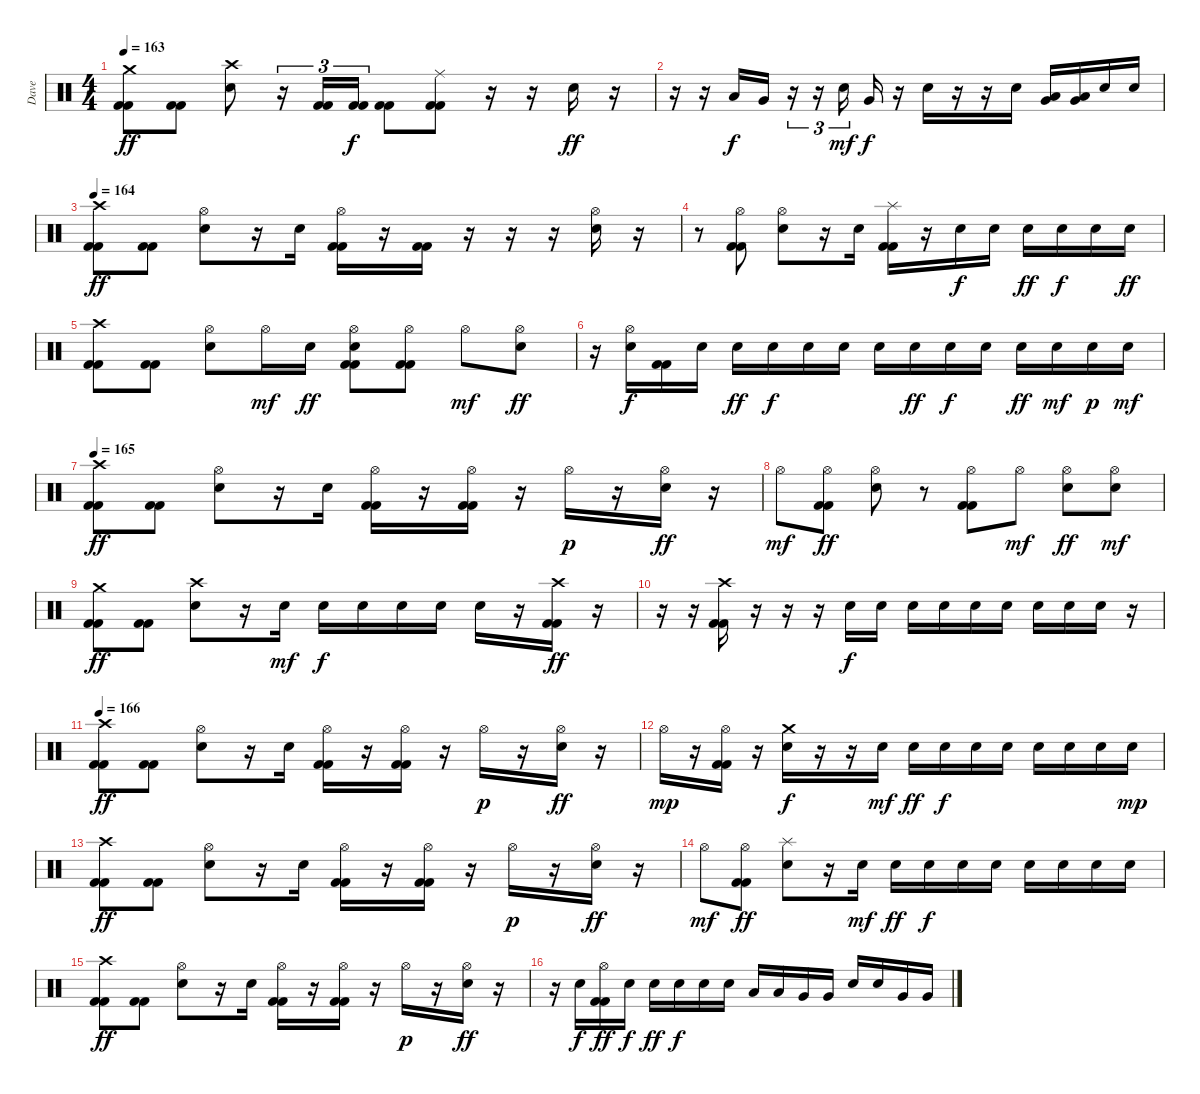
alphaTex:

\track ("Dave" "Dave") {instrument percussion}
\staff {score}
\articulation defaults
\ts (4 4)
\tempo 163
\clef neutral
\ks c
("Crash medium (hit)" "Kick (hit) 2" "Kick (hit) 2").8{dy ff} ("Kick (hit) 2" "Kick (hit) 2").8 ("Crash high (hit)" "Electric Snare (hit)").8 r.16{tu (3 2)} ("Kick (hit) 2" "Kick (hit) 2").16{tu (3 2)} ("Kick (hit) 2" "Kick (hit) 2").16{tu (3 2) dy f} ("Kick (hit) 2" "Kick (hit) 2").8 ("Ride (middle)" "Kick (hit) 2" "Kick (hit) 2").8 r.16 r.16 "Electric Snare (hit)".16{dy ff} r.16 |
r.16 r.16 "Low Tom (hit)".16{dy f} "Very Low Tom (hit)".16 r.16{tu (3 2)} r.16{tu (3 2)} "Electric Snare (hit)".16{tu (3 2) dy mf} "Very Low Tom (hit)".16{dy f} r.16 "Electric Snare (hit)".16 r.16 r.16 "Electric Snare (hit)".16 ("Low Tom (hit)" "Very Low Tom (hit)").16 ("Low Tom (hit)" "Very Low Tom (hit)").16 "Electric Snare (hit)".16 "Electric Snare (hit)".16 |
\tempo 164
("Crash high (hit)" "Kick (hit) 2" "Kick (hit) 2").8{dy ff} ("Kick (hit) 2" "Kick (hit) 2").8 ("Hi-Hat (open)" "Electric Snare (hit)").8 r.16 "Electric Snare (hit)".16 ("Hi-Hat (open)" "Kick (hit) 2" "Kick (hit) 2").16 r.16 ("Kick (hit) 2" "Kick (hit) 2").16 r.16 r.16 r.16 ("Hi-Hat (open)" "Electric Snare (hit)").16 r.16 |
r.8 ("Hi-Hat (open)" "Kick (hit) 2" "Kick (hit) 2").8 ("Hi-Hat (open)" "Electric Snare (hit)").8 r.16 "Electric Snare (hit)".16 ("Splash (hit)" "Kick (hit) 2" "Kick (hit) 2").16 r.16 "Electric Snare (hit)".16{dy f} "Electric Snare (hit)".16 "Electric Snare (hit)".16{dy ff} "Electric Snare (hit)".16{dy f} "Electric Snare (hit)".16 "Electric Snare (hit)".16{dy ff} |
("Crash high (hit)" "Kick (hit) 2" "Kick (hit) 2").8 ("Kick (hit) 2" "Kick (hit) 2").8 ("Hi-Hat (open)" "Electric Snare (hit)").8 "Hi-Hat (open)".16{dy mf} "Electric Snare (hit)".16{dy ff} ("Hi-Hat (open)" "Electric Snare (hit)" "Kick (hit) 2" "Kick (hit) 2").8 ("Hi-Hat (open)" "Kick (hit) 2" "Kick (hit) 2").8 "Hi-Hat (open)".8{dy mf} ("Hi-Hat (open)" "Electric Snare (hit)").8{dy ff} |
r.16 ("Hi-Hat (open)" "Electric Snare (hit)").16{dy f} ("Kick (hit) 2" "Kick (hit) 2").16 "Electric Snare (hit)".16 "Electric Snare (hit)".16{dy ff} "Electric Snare (hit)".16{dy f} "Electric Snare (hit)".16 "Electric Snare (hit)".16 "Electric Snare (hit)".16 "Electric Snare (hit)".16{dy ff} "Electric Snare (hit)".16{dy f} "Electric Snare (hit)".16 "Electric Snare (hit)".16{dy ff} "Electric Snare (hit)".16{dy mf} "Electric Snare (hit)".16{dy p} "Electric Snare (hit)".16{dy mf} |
\tempo 165
("Crash high (hit)" "Kick (hit) 2" "Kick (hit) 2").8{dy ff} ("Kick (hit) 2" "Kick (hit) 2").8 ("Hi-Hat (open)" "Electric Snare (hit)").8 r.16 "Electric Snare (hit)".16 ("Hi-Hat (open)" "Kick (hit) 2" "Kick (hit) 2").16 r.16 ("Hi-Hat (open)" "Kick (hit) 2" "Kick (hit) 2").16 r.16 "Hi-Hat (open)".16{dy p} r.16 ("Hi-Hat (open)" "Electric Snare (hit)").16{dy ff} r.16 |
"Hi-Hat (open)".8{dy mf} ("Hi-Hat (open)" "Kick (hit) 2" "Kick (hit) 2").8{dy ff} ("Hi-Hat (open)" "Electric Snare (hit)").8 r.8 ("Hi-Hat (open)" "Kick (hit) 2" "Kick (hit) 2").8 "Hi-Hat (open)".8{dy mf} ("Hi-Hat (open)" "Electric Snare (hit)").8{dy ff} ("Hi-Hat (open)" "Electric Snare (hit)").8{dy mf} |
("Crash medium (hit)" "Kick (hit) 2" "Kick (hit) 2").8{dy ff} ("Kick (hit) 2" "Kick (hit) 2").8 ("Crash high (hit)" "Electric Snare (hit)").8 r.16 "Electric Snare (hit)".16{dy mf} "Electric Snare (hit)".16{dy f} "Electric Snare (hit)".16 "Electric Snare (hit)".16 "Electric Snare (hit)".16 "Electric Snare (hit)".16 r.16 ("Crash high (hit)" "Kick (hit) 2" "Kick (hit) 2").16{dy ff} r.16 |
r.16 r.16 ("Crash high (hit)" "Kick (hit) 2" "Kick (hit) 2").16 r.16 r.16 r.16 "Electric Snare (hit)".16{dy f} "Electric Snare (hit)".16 "Electric Snare (hit)".16 "Electric Snare (hit)".16 "Electric Snare (hit)".16 "Electric Snare (hit)".16 "Electric Snare (hit)".16 "Electric Snare (hit)".16 "Electric Snare (hit)".16 r.16 |
\tempo 166
("Crash high (hit)" "Kick (hit) 2" "Kick (hit) 2").8{dy ff} ("Kick (hit) 2" "Kick (hit) 2").8 ("Hi-Hat (open)" "Electric Snare (hit)").8 r.16 "Electric Snare (hit)".16 ("Hi-Hat (open)" "Kick (hit) 2" "Kick (hit) 2").16 r.16 ("Hi-Hat (open)" "Kick (hit) 2" "Kick (hit) 2").16 r.16 "Hi-Hat (open)".16{dy p} r.16 ("Hi-Hat (open)" "Electric Snare (hit)").16{dy ff} r.16 |
"Hi-Hat (open)".16{dy mp} r.16 ("Hi-Hat (open)" "Kick (hit) 2" "Kick (hit) 2").16 r.16 ("Crash medium (hit)" "Electric Snare (hit)").16{dy f} r.16 r.16 "Electric Snare (hit)".16{dy mf} "Electric Snare (hit)".16{dy ff} "Electric Snare (hit)".16{dy f} "Electric Snare (hit)".16 "Electric Snare (hit)".16 "Electric Snare (hit)".16 "Electric Snare (hit)".16 "Electric Snare (hit)".16 "Electric Snare (hit)".16{dy mp} |
("Crash high (hit)" "Kick (hit) 2" "Kick (hit) 2").8{dy ff} ("Kick (hit) 2" "Kick (hit) 2").8 ("Hi-Hat (open)" "Electric Snare (hit)").8 r.16 "Electric Snare (hit)".16 ("Hi-Hat (open)" "Kick (hit) 2" "Kick (hit) 2").16 r.16 ("Hi-Hat (open)" "Kick (hit) 2" "Kick (hit) 2").16 r.16 "Hi-Hat (open)".16{dy p} r.16 ("Hi-Hat (open)" "Electric Snare (hit)").16{dy ff} r.16 |
"Hi-Hat (open)".8{dy mf} ("Hi-Hat (open)" "Kick (hit) 2" "Kick (hit) 2").8{dy ff} ("Splash (hit)" "Electric Snare (hit)").8 r.16 "Electric Snare (hit)".16{dy mf} "Electric Snare (hit)".16{dy ff} "Electric Snare (hit)".16{dy f} "Electric Snare (hit)".16 "Electric Snare (hit)".16 "Electric Snare (hit)".16 "Electric Snare (hit)".16 "Electric Snare (hit)".16 "Electric Snare (hit)".16 |
("Crash high (hit)" "Kick (hit) 2" "Kick (hit) 2").8{dy ff} ("Kick (hit) 2" "Kick (hit) 2").8 ("Hi-Hat (open)" "Electric Snare (hit)").8 r.16 "Electric Snare (hit)".16 ("Hi-Hat (open)" "Kick (hit) 2" "Kick (hit) 2").16 r.16 ("Hi-Hat (open)" "Kick (hit) 2" "Kick (hit) 2").16 r.16 "Hi-Hat (open)".16{dy p} r.16 ("Hi-Hat (open)" "Electric Snare (hit)").16{dy ff} r.16 |
r.16 "Electric Snare (hit)".16{dy f} ("Hi-Hat (open)" "Kick (hit) 2" "Kick (hit) 2").16{dy ff} "Electric Snare (hit)".16{dy f} "Electric Snare (hit)".16{dy ff} "Electric Snare (hit)".16{dy f} "Electric Snare (hit)".16 "Electric Snare (hit)".16 "Low Tom (hit)".16 "Low Tom (hit)".16 "Very Low Tom (hit)".16 "Very Low Tom (hit)".16 "Electric Snare (hit)".16 "Electric Snare (hit)".16 "Very Low Tom (hit)".16 "Very Low Tom (hit)".16
